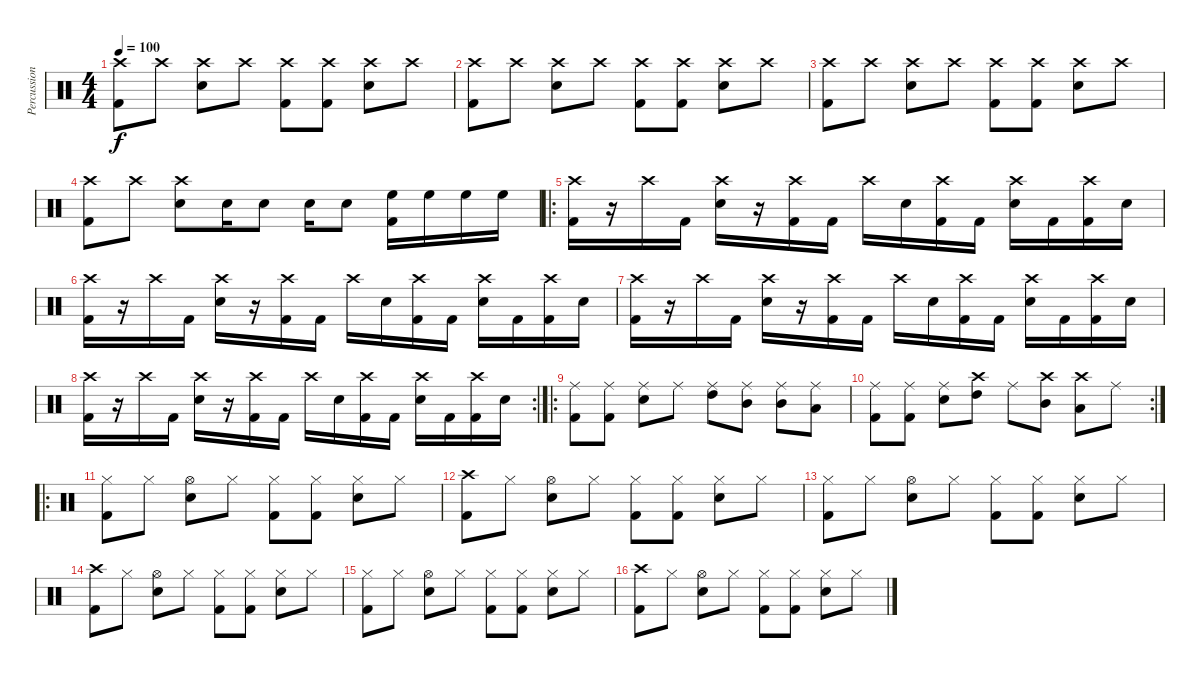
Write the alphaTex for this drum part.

\track ("Percussions" "Percussion") {instrument percussion}
\staff {score}
\articulation defaults
\ts (4 4)
\tempo 100
\clef neutral
\ks c
("Crash high (hit)" "Kick (hit) 2").8{dy f} "Crash high (hit)".8 ("Crash high (hit)" "Snare (hit) 2").8 "Crash high (hit)".8 ("Crash high (hit)" "Kick (hit) 2").8 ("Crash high (hit)" "Kick (hit) 2").8 ("Crash high (hit)" "Snare (hit) 2").8 "Crash high (hit)".8 |
("Crash high (hit)" "Kick (hit) 2").8 "Crash high (hit)".8 ("Crash high (hit)" "Snare (hit) 2").8 "Crash high (hit)".8 ("Crash high (hit)" "Kick (hit) 2").8 ("Crash high (hit)" "Kick (hit) 2").8 ("Crash high (hit)" "Snare (hit) 2").8 "Crash high (hit)".8 |
("Crash high (hit)" "Kick (hit) 2").8 "Crash high (hit)".8 ("Crash high (hit)" "Snare (hit) 2").8 "Crash high (hit)".8 ("Crash high (hit)" "Kick (hit) 2").8 ("Crash high (hit)" "Kick (hit) 2").8 ("Crash high (hit)" "Snare (hit) 2").8 "Crash high (hit)".8 |
("Crash high (hit)" "Kick (hit) 2").8 "Crash high (hit)".8 ("Crash high (hit)" "Snare (hit) 2").8 "Snare (hit) 2".16 "Snare (hit) 2".8 "Snare (hit) 2".16 "Snare (hit) 2".8 ("High Floor Tom (hit)" "Kick (hit) 2").16 "High Floor Tom (hit)".16 "High Floor Tom (hit)".16 "High Floor Tom (hit)".16 |
\ro
("Crash high (hit)" "Kick (hit) 2").16 r.16 "Crash high (hit)".16 "Kick (hit) 2".16 ("Crash high (hit)" "Snare (hit) 2").16 r.16 ("Crash high (hit)" "Kick (hit) 2").16 "Kick (hit) 2".16 "Crash high (hit)".16 "Snare (hit) 2".16 ("Crash high (hit)" "Kick (hit) 2").16 "Kick (hit) 2".16 ("Crash high (hit)" "Snare (hit) 2").16 "Kick (hit) 2".16 ("Crash high (hit)" "Kick (hit) 2").16 "Snare (hit) 2".16 |
("Crash high (hit)" "Kick (hit) 2").16 r.16 "Crash high (hit)".16 "Kick (hit) 2".16 ("Crash high (hit)" "Snare (hit) 2").16 r.16 ("Crash high (hit)" "Kick (hit) 2").16 "Kick (hit) 2".16 "Crash high (hit)".16 "Snare (hit) 2".16 ("Crash high (hit)" "Kick (hit) 2").16 "Kick (hit) 2".16 ("Crash high (hit)" "Snare (hit) 2").16 "Kick (hit) 2".16 ("Crash high (hit)" "Kick (hit) 2").16 "Snare (hit) 2".16 |
("Crash high (hit)" "Kick (hit) 2").16 r.16 "Crash high (hit)".16 "Kick (hit) 2".16 ("Crash high (hit)" "Snare (hit) 2").16 r.16 ("Crash high (hit)" "Kick (hit) 2").16 "Kick (hit) 2".16 "Crash high (hit)".16 "Snare (hit) 2".16 ("Crash high (hit)" "Kick (hit) 2").16 "Kick (hit) 2".16 ("Crash high (hit)" "Snare (hit) 2").16 "Kick (hit) 2".16 ("Crash high (hit)" "Kick (hit) 2").16 "Snare (hit) 2".16 |
\rc 2
("Crash high (hit)" "Kick (hit) 2").16 r.16 "Crash high (hit)".16 "Kick (hit) 2".16 ("Crash high (hit)" "Snare (hit) 2").16 r.16 ("Crash high (hit)" "Kick (hit) 2").16 "Kick (hit) 2".16 "Crash high (hit)".16 "Snare (hit) 2".16 ("Crash high (hit)" "Kick (hit) 2").16 "Kick (hit) 2".16 ("Crash high (hit)" "Snare (hit) 2").16 "Kick (hit) 2".16 ("Crash high (hit)" "Kick (hit) 2").16 "Snare (hit) 2".16 |
\ro
("Ride (middle)" "Kick (hit) 2").8 ("Ride (middle)" "Kick (hit) 2").8 ("Ride (middle)" "Snare (hit) 2").8 "Ride (middle)".8 ("Ride (middle)" "High Tom (hit)").8 ("Ride (middle)" "Mid Tom (hit)").8 ("Ride (middle)" "Mid Tom (hit)").8 ("Ride (middle)" "Low Tom (hit)").8 |
\rc 2
("Ride (middle)" "Kick (hit) 2").8 ("Ride (middle)" "Kick (hit) 2").8 ("Ride (middle)" "Snare (hit) 2").8 ("Crash high (hit)" "High Tom (hit)").8 "Ride (middle)".8 ("Crash high (hit)" "Mid Tom (hit)").8 ("Crash high (hit)" "Low Tom (hit)").8 "Ride (middle)".8 |
\ro
("Hi-Hat (closed)" "Kick (hit) 2").8 "Hi-Hat (closed)".8 ("Hi-Hat (open)" "Snare (hit) 2").8 "Hi-Hat (closed)".8 ("Hi-Hat (closed)" "Kick (hit) 2").8 ("Hi-Hat (closed)" "Kick (hit) 2").8 ("Hi-Hat (closed)" "Snare (hit) 2").8 "Hi-Hat (closed)".8 |
("Crash high (hit)" "Kick (hit) 2").8 "Hi-Hat (closed)".8 ("Hi-Hat (open)" "Snare (hit) 2").8 "Hi-Hat (closed)".8 ("Hi-Hat (closed)" "Kick (hit) 2").8 ("Hi-Hat (closed)" "Kick (hit) 2").8 ("Hi-Hat (closed)" "Snare (hit) 2").8 "Hi-Hat (closed)".8 |
("Hi-Hat (closed)" "Kick (hit) 2").8 "Hi-Hat (closed)".8 ("Hi-Hat (open)" "Snare (hit) 2").8 "Hi-Hat (closed)".8 ("Hi-Hat (closed)" "Kick (hit) 2").8 ("Hi-Hat (closed)" "Kick (hit) 2").8 ("Hi-Hat (closed)" "Snare (hit) 2").8 "Hi-Hat (closed)".8 |
("Crash high (hit)" "Kick (hit) 2").8 "Hi-Hat (closed)".8 ("Hi-Hat (open)" "Snare (hit) 2").8 "Hi-Hat (closed)".8 ("Hi-Hat (closed)" "Kick (hit) 2").8 ("Hi-Hat (closed)" "Kick (hit) 2").8 ("Hi-Hat (closed)" "Snare (hit) 2").8 "Hi-Hat (closed)".8 |
("Hi-Hat (closed)" "Kick (hit) 2").8 "Hi-Hat (closed)".8 ("Hi-Hat (open)" "Snare (hit) 2").8 "Hi-Hat (closed)".8 ("Hi-Hat (closed)" "Kick (hit) 2").8 ("Hi-Hat (closed)" "Kick (hit) 2").8 ("Hi-Hat (closed)" "Snare (hit) 2").8 "Hi-Hat (closed)".8 |
("Crash high (hit)" "Kick (hit) 2").8 "Hi-Hat (closed)".8 ("Hi-Hat (open)" "Snare (hit) 2").8 "Hi-Hat (closed)".8 ("Hi-Hat (closed)" "Kick (hit) 2").8 ("Hi-Hat (closed)" "Kick (hit) 2").8 ("Hi-Hat (closed)" "Snare (hit) 2").8 "Hi-Hat (closed)".8
